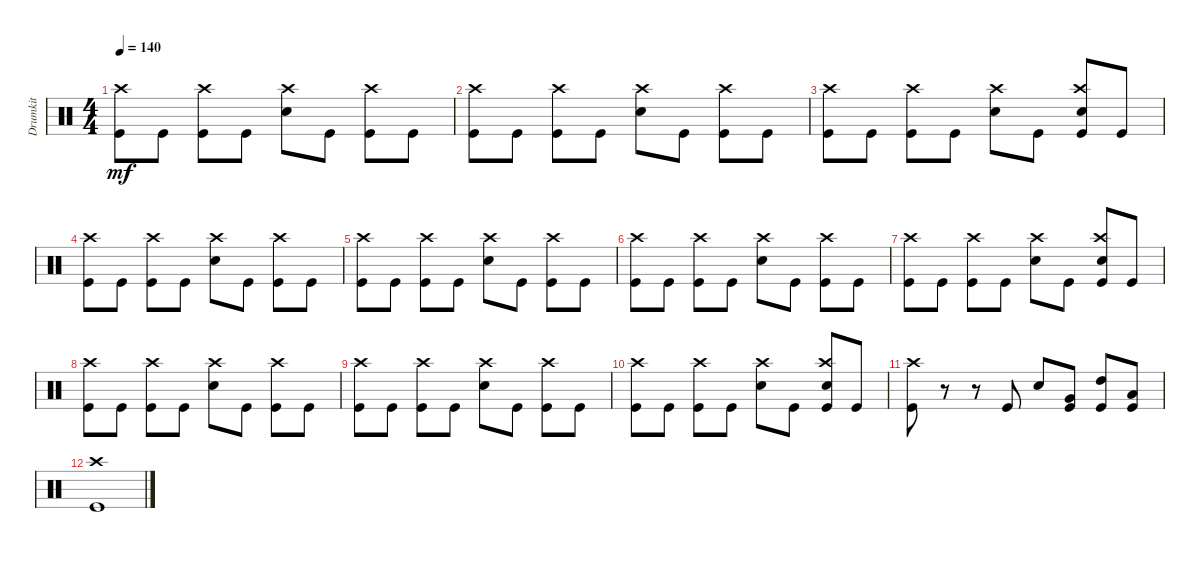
\track ("Drumkit" "Drumkit") {instrument percussion}
\staff {score}
\articulation defaults
\ts (4 4)
\tempo 140
\clef neutral
\ks c
("Kick (hit)" "Crash high (hit)").8{dy mf} "Kick (hit)".8 ("Kick (hit)" "Crash high (hit)").8 "Kick (hit)".8 ("Snare (hit) 2" "Crash high (hit)").8 "Kick (hit)".8 ("Kick (hit)" "Crash high (hit)").8 "Kick (hit)".8 |
("Kick (hit)" "Crash high (hit)").8 "Kick (hit)".8 ("Kick (hit)" "Crash high (hit)").8 "Kick (hit)".8 ("Snare (hit) 2" "Crash high (hit)").8 "Kick (hit)".8 ("Kick (hit)" "Crash high (hit)").8 "Kick (hit)".8 |
("Kick (hit)" "Crash high (hit)").8 "Kick (hit)".8 ("Kick (hit)" "Crash high (hit)").8 "Kick (hit)".8 ("Snare (hit) 2" "Crash high (hit)").8 "Kick (hit)".8 ("Kick (hit)" "Crash high (hit)" "Snare (hit) 2").8 "Kick (hit)".8 |
("Kick (hit)" "Crash high (hit)").8 "Kick (hit)".8 ("Kick (hit)" "Crash high (hit)").8 "Kick (hit)".8 ("Snare (hit) 2" "Crash high (hit)").8 "Kick (hit)".8 ("Kick (hit)" "Crash high (hit)").8 "Kick (hit)".8 |
("Kick (hit)" "Crash high (hit)").8 "Kick (hit)".8 ("Kick (hit)" "Crash high (hit)").8 "Kick (hit)".8 ("Snare (hit) 2" "Crash high (hit)").8 "Kick (hit)".8 ("Kick (hit)" "Crash high (hit)").8 "Kick (hit)".8 |
("Kick (hit)" "Crash high (hit)").8 "Kick (hit)".8 ("Kick (hit)" "Crash high (hit)").8 "Kick (hit)".8 ("Snare (hit) 2" "Crash high (hit)").8 "Kick (hit)".8 ("Kick (hit)" "Crash high (hit)").8 "Kick (hit)".8 |
("Kick (hit)" "Crash high (hit)").8 "Kick (hit)".8 ("Kick (hit)" "Crash high (hit)").8 "Kick (hit)".8 ("Snare (hit) 2" "Crash high (hit)").8 "Kick (hit)".8 ("Kick (hit)" "Crash high (hit)" "Snare (hit) 2").8 "Kick (hit)".8 |
("Kick (hit)" "Crash high (hit)").8 "Kick (hit)".8 ("Kick (hit)" "Crash high (hit)").8 "Kick (hit)".8 ("Snare (hit) 2" "Crash high (hit)").8 "Kick (hit)".8 ("Kick (hit)" "Crash high (hit)").8 "Kick (hit)".8 |
("Kick (hit)" "Crash high (hit)").8 "Kick (hit)".8 ("Kick (hit)" "Crash high (hit)").8 "Kick (hit)".8 ("Snare (hit) 2" "Crash high (hit)").8 "Kick (hit)".8 ("Kick (hit)" "Crash high (hit)").8 "Kick (hit)".8 |
("Kick (hit)" "Crash high (hit)").8 "Kick (hit)".8 ("Kick (hit)" "Crash high (hit)").8 "Kick (hit)".8 ("Snare (hit) 2" "Crash high (hit)").8 "Kick (hit)".8 ("Kick (hit)" "Crash high (hit)" "Snare (hit) 2").8 "Kick (hit)".8 |
("Kick (hit)" "Crash high (hit)").8 r.8 r.8 "Kick (hit)".8 "Snare (hit) 2".8 ("Kick (hit)" "Very Low Tom (hit)").8 ("Kick (hit)" "High Tom (hit)").8 ("Kick (hit)" "Low Tom (hit)").8 |
("Kick (hit)" "Crash high (hit)").1
